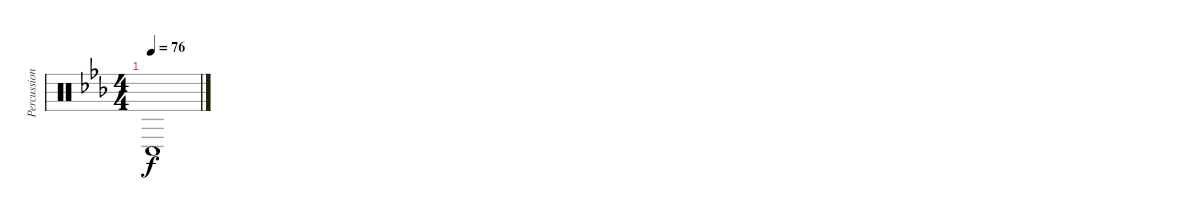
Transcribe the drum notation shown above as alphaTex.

\track ("Percussion" "Percussion") {instrument percussion}
\staff {score}
\articulation defaults
\ts (4 4)
\tempo 76
\clef neutral
\ks cminor "Conga low (hit)".1{dy f}
